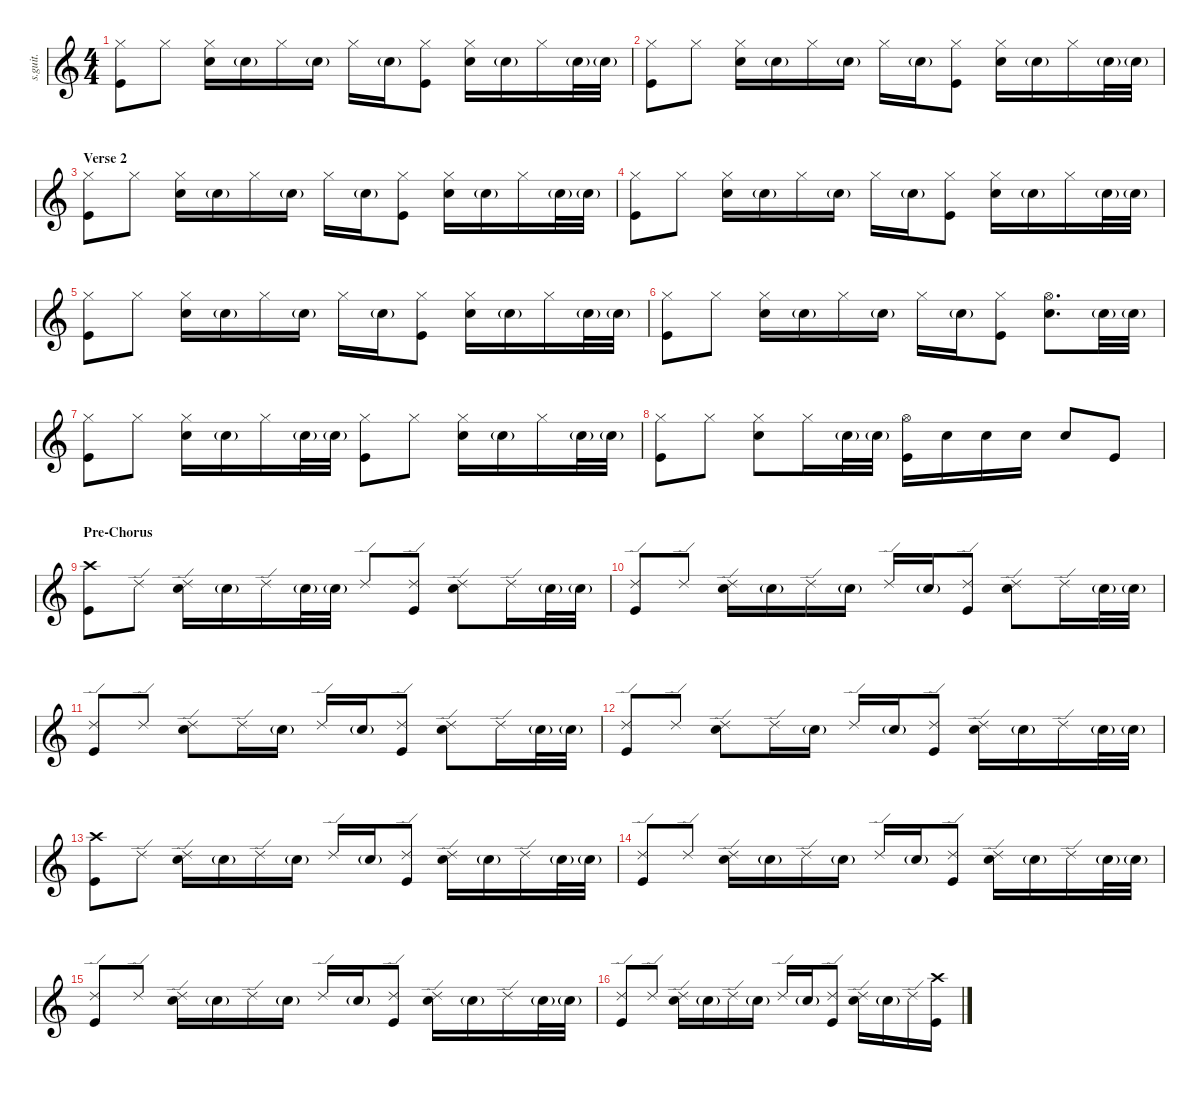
\defaultSystemsLayout 4
\hideDynamics
\bracketExtendMode nobrackets
\track ("C. Smith" "s.guit.") {instrument percussion}
\staff {score}
\articulation defaults
\ts (4 4)
\tempo (96 hide)
\clef g2
\ks c
("Hi-Hat (closed)" "Kick (hit)").8{lyrics (0 "") lyrics (1 "") lyrics (2 "") lyrics (3 "") lyrics (4 "") dy f} "Hi-Hat (closed)".8{lyrics (0 "") lyrics (1 "") lyrics (2 "") lyrics (3 "") lyrics (4 "") dy mp} ("Hi-Hat (closed)" "Snare (hit) 2").16{lyrics (0 "") lyrics (1 "") lyrics (2 "") lyrics (3 "") lyrics (4 "") dy f} "Snare (hit) 2"{g}.16{lyrics (0 "") lyrics (1 "") lyrics (2 "") lyrics (3 "") lyrics (4 "") dy ppp} "Hi-Hat (closed)".16{lyrics (0 "") lyrics (1 "") lyrics (2 "") lyrics (3 "") lyrics (4 "") dy mp} "Snare (hit) 2"{g}.16{lyrics (0 "") lyrics (1 "") lyrics (2 "") lyrics (3 "") lyrics (4 "") dy ppp} "Hi-Hat (closed)".16{lyrics (0 "") lyrics (1 "") lyrics (2 "") lyrics (3 "") lyrics (4 "") dy fff} "Snare (hit) 2"{g}.16{lyrics (0 "") lyrics (1 "") lyrics (2 "") lyrics (3 "") lyrics (4 "") dy ppp} ("Hi-Hat (closed)" "Kick (hit)").8{lyrics (0 "") lyrics (1 "") lyrics (2 "") lyrics (3 "") lyrics (4 "") dy f} ("Hi-Hat (closed)" "Snare (hit) 2").16{lyrics (0 "") lyrics (1 "") lyrics (2 "") lyrics (3 "") lyrics (4 "")} "Snare (hit) 2"{g}.16{lyrics (0 "") lyrics (1 "") lyrics (2 "") lyrics (3 "") lyrics (4 "") dy ppp} "Hi-Hat (closed)".16{lyrics (0 "") lyrics (1 "") lyrics (2 "") lyrics (3 "") lyrics (4 "") dy mp} "Snare (hit) 2"{g}.32{lyrics (0 "") lyrics (1 "") lyrics (2 "") lyrics (3 "") lyrics (4 "") dy ppp} "Snare (hit) 2"{g}.32{lyrics (0 "") lyrics (1 "") lyrics (2 "") lyrics (3 "") lyrics (4 "")} |
("Hi-Hat (closed)" "Kick (hit)").8{lyrics (0 "") lyrics (1 "") lyrics (2 "") lyrics (3 "") lyrics (4 "") dy f} "Hi-Hat (closed)".8{lyrics (0 "") lyrics (1 "") lyrics (2 "") lyrics (3 "") lyrics (4 "") dy mp} ("Hi-Hat (closed)" "Snare (hit) 2").16{lyrics (0 "") lyrics (1 "") lyrics (2 "") lyrics (3 "") lyrics (4 "") dy f} "Snare (hit) 2"{g}.16{lyrics (0 "") lyrics (1 "") lyrics (2 "") lyrics (3 "") lyrics (4 "") dy ppp} "Hi-Hat (closed)".16{lyrics (0 "") lyrics (1 "") lyrics (2 "") lyrics (3 "") lyrics (4 "") dy mp} "Snare (hit) 2"{g}.16{lyrics (0 "") lyrics (1 "") lyrics (2 "") lyrics (3 "") lyrics (4 "") dy ppp} "Hi-Hat (closed)".16{lyrics (0 "") lyrics (1 "") lyrics (2 "") lyrics (3 "") lyrics (4 "") dy fff} "Snare (hit) 2"{g}.16{lyrics (0 "") lyrics (1 "") lyrics (2 "") lyrics (3 "") lyrics (4 "") dy ppp} ("Hi-Hat (closed)" "Kick (hit)").8{lyrics (0 "") lyrics (1 "") lyrics (2 "") lyrics (3 "") lyrics (4 "") dy f} ("Hi-Hat (closed)" "Snare (hit) 2").16{lyrics (0 "") lyrics (1 "") lyrics (2 "") lyrics (3 "") lyrics (4 "")} "Snare (hit) 2"{g}.16{lyrics (0 "") lyrics (1 "") lyrics (2 "") lyrics (3 "") lyrics (4 "") dy ppp} "Hi-Hat (closed)".16{lyrics (0 "") lyrics (1 "") lyrics (2 "") lyrics (3 "") lyrics (4 "") dy mp} "Snare (hit) 2"{g}.32{lyrics (0 "") lyrics (1 "") lyrics (2 "") lyrics (3 "") lyrics (4 "") dy ppp} "Snare (hit) 2"{g}.32{lyrics (0 "") lyrics (1 "") lyrics (2 "") lyrics (3 "") lyrics (4 "")} |
\section ("" "Verse 2")
("Hi-Hat (closed)" "Kick (hit)").8{lyrics (0 "") lyrics (1 "") lyrics (2 "") lyrics (3 "") lyrics (4 "") dy f} "Hi-Hat (closed)".8{lyrics (0 "") lyrics (1 "") lyrics (2 "") lyrics (3 "") lyrics (4 "") dy mp} ("Hi-Hat (closed)" "Snare (hit) 2").16{lyrics (0 "") lyrics (1 "") lyrics (2 "") lyrics (3 "") lyrics (4 "") dy f} "Snare (hit) 2"{g}.16{lyrics (0 "") lyrics (1 "") lyrics (2 "") lyrics (3 "") lyrics (4 "") dy ppp} "Hi-Hat (closed)".16{lyrics (0 "") lyrics (1 "") lyrics (2 "") lyrics (3 "") lyrics (4 "") dy mp} "Snare (hit) 2"{g}.16{lyrics (0 "") lyrics (1 "") lyrics (2 "") lyrics (3 "") lyrics (4 "") dy ppp} "Hi-Hat (closed)".16{lyrics (0 "") lyrics (1 "") lyrics (2 "") lyrics (3 "") lyrics (4 "") dy fff} "Snare (hit) 2"{g}.16{lyrics (0 "") lyrics (1 "") lyrics (2 "") lyrics (3 "") lyrics (4 "") dy ppp} ("Hi-Hat (closed)" "Kick (hit)").8{lyrics (0 "") lyrics (1 "") lyrics (2 "") lyrics (3 "") lyrics (4 "") dy f} ("Hi-Hat (closed)" "Snare (hit) 2").16{lyrics (0 "") lyrics (1 "") lyrics (2 "") lyrics (3 "") lyrics (4 "")} "Snare (hit) 2"{g}.16{lyrics (0 "") lyrics (1 "") lyrics (2 "") lyrics (3 "") lyrics (4 "") dy ppp} "Hi-Hat (closed)".16{lyrics (0 "") lyrics (1 "") lyrics (2 "") lyrics (3 "") lyrics (4 "") dy mp} "Snare (hit) 2"{g}.32{lyrics (0 "") lyrics (1 "") lyrics (2 "") lyrics (3 "") lyrics (4 "") dy ppp} "Snare (hit) 2"{g}.32{lyrics (0 "") lyrics (1 "") lyrics (2 "") lyrics (3 "") lyrics (4 "")} |
("Hi-Hat (closed)" "Kick (hit)").8{lyrics (0 "") lyrics (1 "") lyrics (2 "") lyrics (3 "") lyrics (4 "") dy f} "Hi-Hat (closed)".8{lyrics (0 "") lyrics (1 "") lyrics (2 "") lyrics (3 "") lyrics (4 "") dy mp} ("Hi-Hat (closed)" "Snare (hit) 2").16{lyrics (0 "") lyrics (1 "") lyrics (2 "") lyrics (3 "") lyrics (4 "") dy f} "Snare (hit) 2"{g}.16{lyrics (0 "") lyrics (1 "") lyrics (2 "") lyrics (3 "") lyrics (4 "") dy ppp} "Hi-Hat (closed)".16{lyrics (0 "") lyrics (1 "") lyrics (2 "") lyrics (3 "") lyrics (4 "") dy mp} "Snare (hit) 2"{g}.16{lyrics (0 "") lyrics (1 "") lyrics (2 "") lyrics (3 "") lyrics (4 "") dy ppp} "Hi-Hat (closed)".16{lyrics (0 "") lyrics (1 "") lyrics (2 "") lyrics (3 "") lyrics (4 "") dy fff} "Snare (hit) 2"{g}.16{lyrics (0 "") lyrics (1 "") lyrics (2 "") lyrics (3 "") lyrics (4 "") dy ppp} ("Hi-Hat (closed)" "Kick (hit)").8{lyrics (0 "") lyrics (1 "") lyrics (2 "") lyrics (3 "") lyrics (4 "") dy f} ("Hi-Hat (closed)" "Snare (hit) 2").16{lyrics (0 "") lyrics (1 "") lyrics (2 "") lyrics (3 "") lyrics (4 "")} "Snare (hit) 2"{g}.16{lyrics (0 "") lyrics (1 "") lyrics (2 "") lyrics (3 "") lyrics (4 "") dy ppp} "Hi-Hat (closed)".16{lyrics (0 "") lyrics (1 "") lyrics (2 "") lyrics (3 "") lyrics (4 "") dy mp} "Snare (hit) 2"{g}.32{lyrics (0 "") lyrics (1 "") lyrics (2 "") lyrics (3 "") lyrics (4 "") dy ppp} "Snare (hit) 2"{g}.32{lyrics (0 "") lyrics (1 "") lyrics (2 "") lyrics (3 "") lyrics (4 "")} |
("Hi-Hat (closed)" "Kick (hit)").8{lyrics (0 "") lyrics (1 "") lyrics (2 "") lyrics (3 "") lyrics (4 "") dy f} "Hi-Hat (closed)".8{lyrics (0 "") lyrics (1 "") lyrics (2 "") lyrics (3 "") lyrics (4 "") dy mp} ("Hi-Hat (closed)" "Snare (hit) 2").16{lyrics (0 "") lyrics (1 "") lyrics (2 "") lyrics (3 "") lyrics (4 "") dy f} "Snare (hit) 2"{g}.16{lyrics (0 "") lyrics (1 "") lyrics (2 "") lyrics (3 "") lyrics (4 "") dy ppp} "Hi-Hat (closed)".16{lyrics (0 "") lyrics (1 "") lyrics (2 "") lyrics (3 "") lyrics (4 "") dy mp} "Snare (hit) 2"{g}.16{lyrics (0 "") lyrics (1 "") lyrics (2 "") lyrics (3 "") lyrics (4 "") dy ppp} "Hi-Hat (closed)".16{lyrics (0 "") lyrics (1 "") lyrics (2 "") lyrics (3 "") lyrics (4 "") dy fff} "Snare (hit) 2"{g}.16{lyrics (0 "") lyrics (1 "") lyrics (2 "") lyrics (3 "") lyrics (4 "") dy ppp} ("Hi-Hat (closed)" "Kick (hit)").8{lyrics (0 "") lyrics (1 "") lyrics (2 "") lyrics (3 "") lyrics (4 "") dy f} ("Hi-Hat (closed)" "Snare (hit) 2").16{lyrics (0 "") lyrics (1 "") lyrics (2 "") lyrics (3 "") lyrics (4 "")} "Snare (hit) 2"{g}.16{lyrics (0 "") lyrics (1 "") lyrics (2 "") lyrics (3 "") lyrics (4 "") dy ppp} "Hi-Hat (closed)".16{lyrics (0 "") lyrics (1 "") lyrics (2 "") lyrics (3 "") lyrics (4 "") dy mp} "Snare (hit) 2"{g}.32{lyrics (0 "") lyrics (1 "") lyrics (2 "") lyrics (3 "") lyrics (4 "") dy ppp} "Snare (hit) 2"{g}.32{lyrics (0 "") lyrics (1 "") lyrics (2 "") lyrics (3 "") lyrics (4 "")} |
("Hi-Hat (closed)" "Kick (hit)").8{lyrics (0 "") lyrics (1 "") lyrics (2 "") lyrics (3 "") lyrics (4 "") dy f} "Hi-Hat (closed)".8{lyrics (0 "") lyrics (1 "") lyrics (2 "") lyrics (3 "") lyrics (4 "") dy mp} ("Hi-Hat (closed)" "Snare (hit) 2").16{lyrics (0 "") lyrics (1 "") lyrics (2 "") lyrics (3 "") lyrics (4 "") dy f} "Snare (hit) 2"{g}.16{lyrics (0 "") lyrics (1 "") lyrics (2 "") lyrics (3 "") lyrics (4 "") dy ppp} "Hi-Hat (closed)".16{lyrics (0 "") lyrics (1 "") lyrics (2 "") lyrics (3 "") lyrics (4 "") dy mp} "Snare (hit) 2"{g}.16{lyrics (0 "") lyrics (1 "") lyrics (2 "") lyrics (3 "") lyrics (4 "") dy ppp} "Hi-Hat (closed)".16{lyrics (0 "") lyrics (1 "") lyrics (2 "") lyrics (3 "") lyrics (4 "") dy fff} "Snare (hit) 2"{g}.16{lyrics (0 "") lyrics (1 "") lyrics (2 "") lyrics (3 "") lyrics (4 "") dy ppp} ("Hi-Hat (closed)" "Kick (hit)").8{lyrics (0 "") lyrics (1 "") lyrics (2 "") lyrics (3 "") lyrics (4 "") dy f} ("Hi-Hat (open)" "Snare (hit) 2").8{d lyrics (0 "") lyrics (1 "") lyrics (2 "") lyrics (3 "") lyrics (4 "")} "Snare (hit) 2"{g}.32{lyrics (0 "") lyrics (1 "") lyrics (2 "") lyrics (3 "") lyrics (4 "") dy ppp} "Snare (hit) 2"{g}.32{lyrics (0 "") lyrics (1 "") lyrics (2 "") lyrics (3 "") lyrics (4 "")} |
("Hi-Hat (closed)" "Kick (hit)").8{lyrics (0 "") lyrics (1 "") lyrics (2 "") lyrics (3 "") lyrics (4 "") dy f} "Hi-Hat (closed)".8{lyrics (0 "") lyrics (1 "") lyrics (2 "") lyrics (3 "") lyrics (4 "") dy mp} ("Hi-Hat (closed)" "Snare (hit) 2").16{lyrics (0 "") lyrics (1 "") lyrics (2 "") lyrics (3 "") lyrics (4 "") dy f} "Snare (hit) 2"{g}.16{lyrics (0 "") lyrics (1 "") lyrics (2 "") lyrics (3 "") lyrics (4 "") dy ppp} "Hi-Hat (closed)".16{lyrics (0 "") lyrics (1 "") lyrics (2 "") lyrics (3 "") lyrics (4 "") dy mp} "Snare (hit) 2"{g}.32{lyrics (0 "") lyrics (1 "") lyrics (2 "") lyrics (3 "") lyrics (4 "") dy ppp} "Snare (hit) 2"{g}.32{lyrics (0 "") lyrics (1 "") lyrics (2 "") lyrics (3 "") lyrics (4 "")} ("Hi-Hat (closed)" "Kick (hit)").8{lyrics (0 "") lyrics (1 "") lyrics (2 "") lyrics (3 "") lyrics (4 "") dy f} "Hi-Hat (closed)".8{lyrics (0 "") lyrics (1 "") lyrics (2 "") lyrics (3 "") lyrics (4 "") dy mp} ("Hi-Hat (closed)" "Snare (hit) 2").16{lyrics (0 "") lyrics (1 "") lyrics (2 "") lyrics (3 "") lyrics (4 "") dy f} "Snare (hit) 2"{g}.16{lyrics (0 "") lyrics (1 "") lyrics (2 "") lyrics (3 "") lyrics (4 "") dy ppp} "Hi-Hat (closed)".16{lyrics (0 "") lyrics (1 "") lyrics (2 "") lyrics (3 "") lyrics (4 "") dy mp} "Snare (hit) 2"{g}.32{lyrics (0 "") lyrics (1 "") lyrics (2 "") lyrics (3 "") lyrics (4 "") dy ppp} "Snare (hit) 2"{g}.32{lyrics (0 "") lyrics (1 "") lyrics (2 "") lyrics (3 "") lyrics (4 "")} |
("Hi-Hat (closed)" "Kick (hit)").8{lyrics (0 "") lyrics (1 "") lyrics (2 "") lyrics (3 "") lyrics (4 "") dy f} "Hi-Hat (closed)".8{lyrics (0 "") lyrics (1 "") lyrics (2 "") lyrics (3 "") lyrics (4 "") dy mp} ("Hi-Hat (closed)" "Snare (hit) 2").8{lyrics (0 "") lyrics (1 "") lyrics (2 "") lyrics (3 "") lyrics (4 "") dy f} "Hi-Hat (closed)".16{lyrics (0 "") lyrics (1 "") lyrics (2 "") lyrics (3 "") lyrics (4 "") dy fff} "Snare (hit) 2"{g}.32{lyrics (0 "") lyrics (1 "") lyrics (2 "") lyrics (3 "") lyrics (4 "") dy ppp} "Snare (hit) 2"{g}.32{lyrics (0 "") lyrics (1 "") lyrics (2 "") lyrics (3 "") lyrics (4 "")} ("Hi-Hat (open)" "Kick (hit)").16{lyrics (0 "") lyrics (1 "") lyrics (2 "") lyrics (3 "") lyrics (4 "") dy f} "Snare (hit) 2".16{lyrics (0 "") lyrics (1 "") lyrics (2 "") lyrics (3 "") lyrics (4 "") dy p} "Snare (hit) 2".16{lyrics (0 "") lyrics (1 "") lyrics (2 "") lyrics (3 "") lyrics (4 "") dy mp} "Snare (hit) 2".16{lyrics (0 "") lyrics (1 "") lyrics (2 "") lyrics (3 "") lyrics (4 "") dy f} "Snare (hit) 2".8{lyrics (0 "") lyrics (1 "") lyrics (2 "") lyrics (3 "") lyrics (4 "") dy fff} "Kick (hit)".8{lyrics (0 "") lyrics (1 "") lyrics (2 "") lyrics (3 "") lyrics (4 "")} |
\section ("" "Pre-Chorus")
("Crash high (hit)" "Kick (hit)").8{lyrics (0 "") lyrics (1 "") lyrics (2 "") lyrics (3 "") lyrics (4 "") dy f} "Ride (edge) 2".8{lyrics (0 "") lyrics (1 "") lyrics (2 "") lyrics (3 "") lyrics (4 "")} ("Ride (edge) 2" "Snare (hit) 2").16{lyrics (0 "") lyrics (1 "") lyrics (2 "") lyrics (3 "") lyrics (4 "")} "Snare (hit) 2"{g}.16{lyrics (0 "") lyrics (1 "") lyrics (2 "") lyrics (3 "") lyrics (4 "") dy ppp} "Ride (edge) 2".16{lyrics (0 "") lyrics (1 "") lyrics (2 "") lyrics (3 "") lyrics (4 "") dy f} "Snare (hit) 2"{g}.32{lyrics (0 "") lyrics (1 "") lyrics (2 "") lyrics (3 "") lyrics (4 "") dy ppp} "Snare (hit) 2"{g}.32{lyrics (0 "") lyrics (1 "") lyrics (2 "") lyrics (3 "") lyrics (4 "")} "Ride (edge) 2".8{lyrics (0 "") lyrics (1 "") lyrics (2 "") lyrics (3 "") lyrics (4 "") dy f} ("Ride (edge) 2" "Kick (hit)").8{lyrics (0 "") lyrics (1 "") lyrics (2 "") lyrics (3 "") lyrics (4 "")} ("Ride (edge) 2" "Snare (hit) 2").8{lyrics (0 "") lyrics (1 "") lyrics (2 "") lyrics (3 "") lyrics (4 "")} "Ride (edge) 2".16{lyrics (0 "") lyrics (1 "") lyrics (2 "") lyrics (3 "") lyrics (4 "")} "Snare (hit) 2"{g}.32{lyrics (0 "") lyrics (1 "") lyrics (2 "") lyrics (3 "") lyrics (4 "") dy ppp} "Snare (hit) 2"{g}.32{lyrics (0 "") lyrics (1 "") lyrics (2 "") lyrics (3 "") lyrics (4 "")} |
("Ride (edge) 2" "Kick (hit)").8{lyrics (0 "") lyrics (1 "") lyrics (2 "") lyrics (3 "") lyrics (4 "") dy f} "Ride (edge) 2".8{lyrics (0 "") lyrics (1 "") lyrics (2 "") lyrics (3 "") lyrics (4 "")} ("Ride (edge) 2" "Snare (hit) 2").16{lyrics (0 "") lyrics (1 "") lyrics (2 "") lyrics (3 "") lyrics (4 "")} "Snare (hit) 2"{g}.16{lyrics (0 "") lyrics (1 "") lyrics (2 "") lyrics (3 "") lyrics (4 "") dy ppp} "Ride (edge) 2".16{lyrics (0 "") lyrics (1 "") lyrics (2 "") lyrics (3 "") lyrics (4 "") dy f} "Snare (hit) 2"{g}.16{lyrics (0 "") lyrics (1 "") lyrics (2 "") lyrics (3 "") lyrics (4 "") dy ppp} "Ride (edge) 2".16{lyrics (0 "") lyrics (1 "") lyrics (2 "") lyrics (3 "") lyrics (4 "") dy f} "Snare (hit) 2"{g}.16{lyrics (0 "") lyrics (1 "") lyrics (2 "") lyrics (3 "") lyrics (4 "") dy ppp} ("Ride (edge) 2" "Kick (hit)").8{lyrics (0 "") lyrics (1 "") lyrics (2 "") lyrics (3 "") lyrics (4 "") dy f} ("Ride (edge) 2" "Snare (hit) 2").8{lyrics (0 "") lyrics (1 "") lyrics (2 "") lyrics (3 "") lyrics (4 "")} "Ride (edge) 2".16{lyrics (0 "") lyrics (1 "") lyrics (2 "") lyrics (3 "") lyrics (4 "")} "Snare (hit) 2"{g}.32{lyrics (0 "") lyrics (1 "") lyrics (2 "") lyrics (3 "") lyrics (4 "") dy ppp} "Snare (hit) 2"{g}.32{lyrics (0 "") lyrics (1 "") lyrics (2 "") lyrics (3 "") lyrics (4 "")} |
("Ride (edge) 2" "Kick (hit)").8{lyrics (0 "") lyrics (1 "") lyrics (2 "") lyrics (3 "") lyrics (4 "") dy f} "Ride (edge) 2".8{lyrics (0 "") lyrics (1 "") lyrics (2 "") lyrics (3 "") lyrics (4 "")} ("Ride (edge) 2" "Snare (hit) 2").8{lyrics (0 "") lyrics (1 "") lyrics (2 "") lyrics (3 "") lyrics (4 "")} "Ride (edge) 2".16{lyrics (0 "") lyrics (1 "") lyrics (2 "") lyrics (3 "") lyrics (4 "")} "Snare (hit) 2"{g}.16{lyrics (0 "") lyrics (1 "") lyrics (2 "") lyrics (3 "") lyrics (4 "") dy ppp} "Ride (edge) 2".16{lyrics (0 "") lyrics (1 "") lyrics (2 "") lyrics (3 "") lyrics (4 "") dy f} "Snare (hit) 2"{g}.16{lyrics (0 "") lyrics (1 "") lyrics (2 "") lyrics (3 "") lyrics (4 "") dy ppp} ("Ride (edge) 2" "Kick (hit)").8{lyrics (0 "") lyrics (1 "") lyrics (2 "") lyrics (3 "") lyrics (4 "") dy f} ("Ride (edge) 2" "Snare (hit) 2").8{lyrics (0 "") lyrics (1 "") lyrics (2 "") lyrics (3 "") lyrics (4 "")} "Ride (edge) 2".16{lyrics (0 "") lyrics (1 "") lyrics (2 "") lyrics (3 "") lyrics (4 "")} "Snare (hit) 2"{g}.32{lyrics (0 "") lyrics (1 "") lyrics (2 "") lyrics (3 "") lyrics (4 "") dy ppp} "Snare (hit) 2"{g}.32{lyrics (0 "") lyrics (1 "") lyrics (2 "") lyrics (3 "") lyrics (4 "")} |
("Ride (edge) 2" "Kick (hit)").8{lyrics (0 "") lyrics (1 "") lyrics (2 "") lyrics (3 "") lyrics (4 "") dy f} "Ride (edge) 2".8{lyrics (0 "") lyrics (1 "") lyrics (2 "") lyrics (3 "") lyrics (4 "")} ("Ride (edge) 2" "Snare (hit) 2").8{lyrics (0 "") lyrics (1 "") lyrics (2 "") lyrics (3 "") lyrics (4 "")} "Ride (edge) 2".16{lyrics (0 "") lyrics (1 "") lyrics (2 "") lyrics (3 "") lyrics (4 "")} "Snare (hit) 2"{g}.16{lyrics (0 "") lyrics (1 "") lyrics (2 "") lyrics (3 "") lyrics (4 "") dy ppp} "Ride (edge) 2".16{lyrics (0 "") lyrics (1 "") lyrics (2 "") lyrics (3 "") lyrics (4 "") dy f} "Snare (hit) 2"{g}.16{lyrics (0 "") lyrics (1 "") lyrics (2 "") lyrics (3 "") lyrics (4 "") dy ppp} ("Ride (edge) 2" "Kick (hit)").8{lyrics (0 "") lyrics (1 "") lyrics (2 "") lyrics (3 "") lyrics (4 "") dy f} ("Ride (edge) 2" "Snare (hit) 2").16{lyrics (0 "") lyrics (1 "") lyrics (2 "") lyrics (3 "") lyrics (4 "")} "Snare (hit) 2"{g}.16{lyrics (0 "") lyrics (1 "") lyrics (2 "") lyrics (3 "") lyrics (4 "") dy ppp} "Ride (edge) 2".16{lyrics (0 "") lyrics (1 "") lyrics (2 "") lyrics (3 "") lyrics (4 "") dy f} "Snare (hit) 2"{g}.32{lyrics (0 "") lyrics (1 "") lyrics (2 "") lyrics (3 "") lyrics (4 "") dy ppp} "Snare (hit) 2"{g}.32{lyrics (0 "") lyrics (1 "") lyrics (2 "") lyrics (3 "") lyrics (4 "")} |
("Crash high (hit)" "Kick (hit)").8{lyrics (0 "") lyrics (1 "") lyrics (2 "") lyrics (3 "") lyrics (4 "") dy f} "Ride (edge) 2".8{lyrics (0 "") lyrics (1 "") lyrics (2 "") lyrics (3 "") lyrics (4 "")} ("Ride (edge) 2" "Snare (hit) 2").16{lyrics (0 "") lyrics (1 "") lyrics (2 "") lyrics (3 "") lyrics (4 "")} "Snare (hit) 2"{g}.16{lyrics (0 "") lyrics (1 "") lyrics (2 "") lyrics (3 "") lyrics (4 "") dy ppp} "Ride (edge) 2".16{lyrics (0 "") lyrics (1 "") lyrics (2 "") lyrics (3 "") lyrics (4 "") dy f} "Snare (hit) 2"{g}.16{lyrics (0 "") lyrics (1 "") lyrics (2 "") lyrics (3 "") lyrics (4 "") dy ppp} "Ride (edge) 2".16{lyrics (0 "") lyrics (1 "") lyrics (2 "") lyrics (3 "") lyrics (4 "") dy f} "Snare (hit) 2"{g}.16{lyrics (0 "") lyrics (1 "") lyrics (2 "") lyrics (3 "") lyrics (4 "") dy ppp} ("Ride (edge) 2" "Kick (hit)").8{lyrics (0 "") lyrics (1 "") lyrics (2 "") lyrics (3 "") lyrics (4 "") dy f} ("Ride (edge) 2" "Snare (hit) 2").16{lyrics (0 "") lyrics (1 "") lyrics (2 "") lyrics (3 "") lyrics (4 "")} "Snare (hit) 2"{g}.16{lyrics (0 "") lyrics (1 "") lyrics (2 "") lyrics (3 "") lyrics (4 "") dy ppp} "Ride (edge) 2".16{lyrics (0 "") lyrics (1 "") lyrics (2 "") lyrics (3 "") lyrics (4 "") dy f} "Snare (hit) 2"{g}.32{lyrics (0 "") lyrics (1 "") lyrics (2 "") lyrics (3 "") lyrics (4 "") dy ppp} "Snare (hit) 2"{g}.32{lyrics (0 "") lyrics (1 "") lyrics (2 "") lyrics (3 "") lyrics (4 "")} |
("Ride (edge) 2" "Kick (hit)").8{lyrics (0 "") lyrics (1 "") lyrics (2 "") lyrics (3 "") lyrics (4 "") dy f} "Ride (edge) 2".8{lyrics (0 "") lyrics (1 "") lyrics (2 "") lyrics (3 "") lyrics (4 "")} ("Ride (edge) 2" "Snare (hit) 2").16{lyrics (0 "") lyrics (1 "") lyrics (2 "") lyrics (3 "") lyrics (4 "")} "Snare (hit) 2"{g}.16{lyrics (0 "") lyrics (1 "") lyrics (2 "") lyrics (3 "") lyrics (4 "") dy ppp} "Ride (edge) 2".16{lyrics (0 "") lyrics (1 "") lyrics (2 "") lyrics (3 "") lyrics (4 "") dy f} "Snare (hit) 2"{g}.16{lyrics (0 "") lyrics (1 "") lyrics (2 "") lyrics (3 "") lyrics (4 "") dy ppp} "Ride (edge) 2".16{lyrics (0 "") lyrics (1 "") lyrics (2 "") lyrics (3 "") lyrics (4 "") dy f} "Snare (hit) 2"{g}.16{lyrics (0 "") lyrics (1 "") lyrics (2 "") lyrics (3 "") lyrics (4 "") dy ppp} ("Ride (edge) 2" "Kick (hit)").8{lyrics (0 "") lyrics (1 "") lyrics (2 "") lyrics (3 "") lyrics (4 "") dy f} ("Ride (edge) 2" "Snare (hit) 2").16{lyrics (0 "") lyrics (1 "") lyrics (2 "") lyrics (3 "") lyrics (4 "")} "Snare (hit) 2"{g}.16{lyrics (0 "") lyrics (1 "") lyrics (2 "") lyrics (3 "") lyrics (4 "") dy ppp} "Ride (edge) 2".16{lyrics (0 "") lyrics (1 "") lyrics (2 "") lyrics (3 "") lyrics (4 "") dy f} "Snare (hit) 2"{g}.32{lyrics (0 "") lyrics (1 "") lyrics (2 "") lyrics (3 "") lyrics (4 "") dy ppp} "Snare (hit) 2"{g}.32{lyrics (0 "") lyrics (1 "") lyrics (2 "") lyrics (3 "") lyrics (4 "")} |
("Ride (edge) 2" "Kick (hit)").8{lyrics (0 "") lyrics (1 "") lyrics (2 "") lyrics (3 "") lyrics (4 "") dy f} "Ride (edge) 2".8{lyrics (0 "") lyrics (1 "") lyrics (2 "") lyrics (3 "") lyrics (4 "")} ("Ride (edge) 2" "Snare (hit) 2").16{lyrics (0 "") lyrics (1 "") lyrics (2 "") lyrics (3 "") lyrics (4 "")} "Snare (hit) 2"{g}.16{lyrics (0 "") lyrics (1 "") lyrics (2 "") lyrics (3 "") lyrics (4 "") dy ppp} "Ride (edge) 2".16{lyrics (0 "") lyrics (1 "") lyrics (2 "") lyrics (3 "") lyrics (4 "") dy f} "Snare (hit) 2"{g}.16{lyrics (0 "") lyrics (1 "") lyrics (2 "") lyrics (3 "") lyrics (4 "") dy ppp} "Ride (edge) 2".16{lyrics (0 "") lyrics (1 "") lyrics (2 "") lyrics (3 "") lyrics (4 "") dy f} "Snare (hit) 2"{g}.16{lyrics (0 "") lyrics (1 "") lyrics (2 "") lyrics (3 "") lyrics (4 "") dy ppp} ("Ride (edge) 2" "Kick (hit)").8{lyrics (0 "") lyrics (1 "") lyrics (2 "") lyrics (3 "") lyrics (4 "") dy f} ("Ride (edge) 2" "Snare (hit) 2").16{lyrics (0 "") lyrics (1 "") lyrics (2 "") lyrics (3 "") lyrics (4 "")} "Snare (hit) 2"{g}.16{lyrics (0 "") lyrics (1 "") lyrics (2 "") lyrics (3 "") lyrics (4 "") dy ppp} "Ride (edge) 2".16{lyrics (0 "") lyrics (1 "") lyrics (2 "") lyrics (3 "") lyrics (4 "") dy f} "Snare (hit) 2"{g}.32{lyrics (0 "") lyrics (1 "") lyrics (2 "") lyrics (3 "") lyrics (4 "") dy ppp} "Snare (hit) 2"{g}.32{lyrics (0 "") lyrics (1 "") lyrics (2 "") lyrics (3 "") lyrics (4 "")} |
("Ride (edge) 2" "Kick (hit)").8{lyrics (0 "") lyrics (1 "") lyrics (2 "") lyrics (3 "") lyrics (4 "") dy f} "Ride (edge) 2".8{lyrics (0 "") lyrics (1 "") lyrics (2 "") lyrics (3 "") lyrics (4 "")} ("Ride (edge) 2" "Snare (hit) 2").16{lyrics (0 "") lyrics (1 "") lyrics (2 "") lyrics (3 "") lyrics (4 "")} "Snare (hit) 2"{g}.16{lyrics (0 "") lyrics (1 "") lyrics (2 "") lyrics (3 "") lyrics (4 "") dy ppp} "Ride (edge) 2".16{lyrics (0 "") lyrics (1 "") lyrics (2 "") lyrics (3 "") lyrics (4 "") dy f} "Snare (hit) 2"{g}.16{lyrics (0 "") lyrics (1 "") lyrics (2 "") lyrics (3 "") lyrics (4 "") dy ppp} "Ride (edge) 2".16{lyrics (0 "") lyrics (1 "") lyrics (2 "") lyrics (3 "") lyrics (4 "") dy f} "Snare (hit) 2"{g}.16{lyrics (0 "") lyrics (1 "") lyrics (2 "") lyrics (3 "") lyrics (4 "") dy ppp} ("Ride (edge) 2" "Kick (hit)").8{lyrics (0 "") lyrics (1 "") lyrics (2 "") lyrics (3 "") lyrics (4 "") dy f} ("Ride (edge) 2" "Snare (hit) 2").16{lyrics (0 "") lyrics (1 "") lyrics (2 "") lyrics (3 "") lyrics (4 "")} "Snare (hit) 2"{g}.16{lyrics (0 "") lyrics (1 "") lyrics (2 "") lyrics (3 "") lyrics (4 "") dy ppp} "Ride (edge) 2".16{lyrics (0 "") lyrics (1 "") lyrics (2 "") lyrics (3 "") lyrics (4 "") dy f} ("Crash high (hit)" "Kick (hit)").16{lyrics (0 "") lyrics (1 "") lyrics (2 "") lyrics (3 "") lyrics (4 "")}
